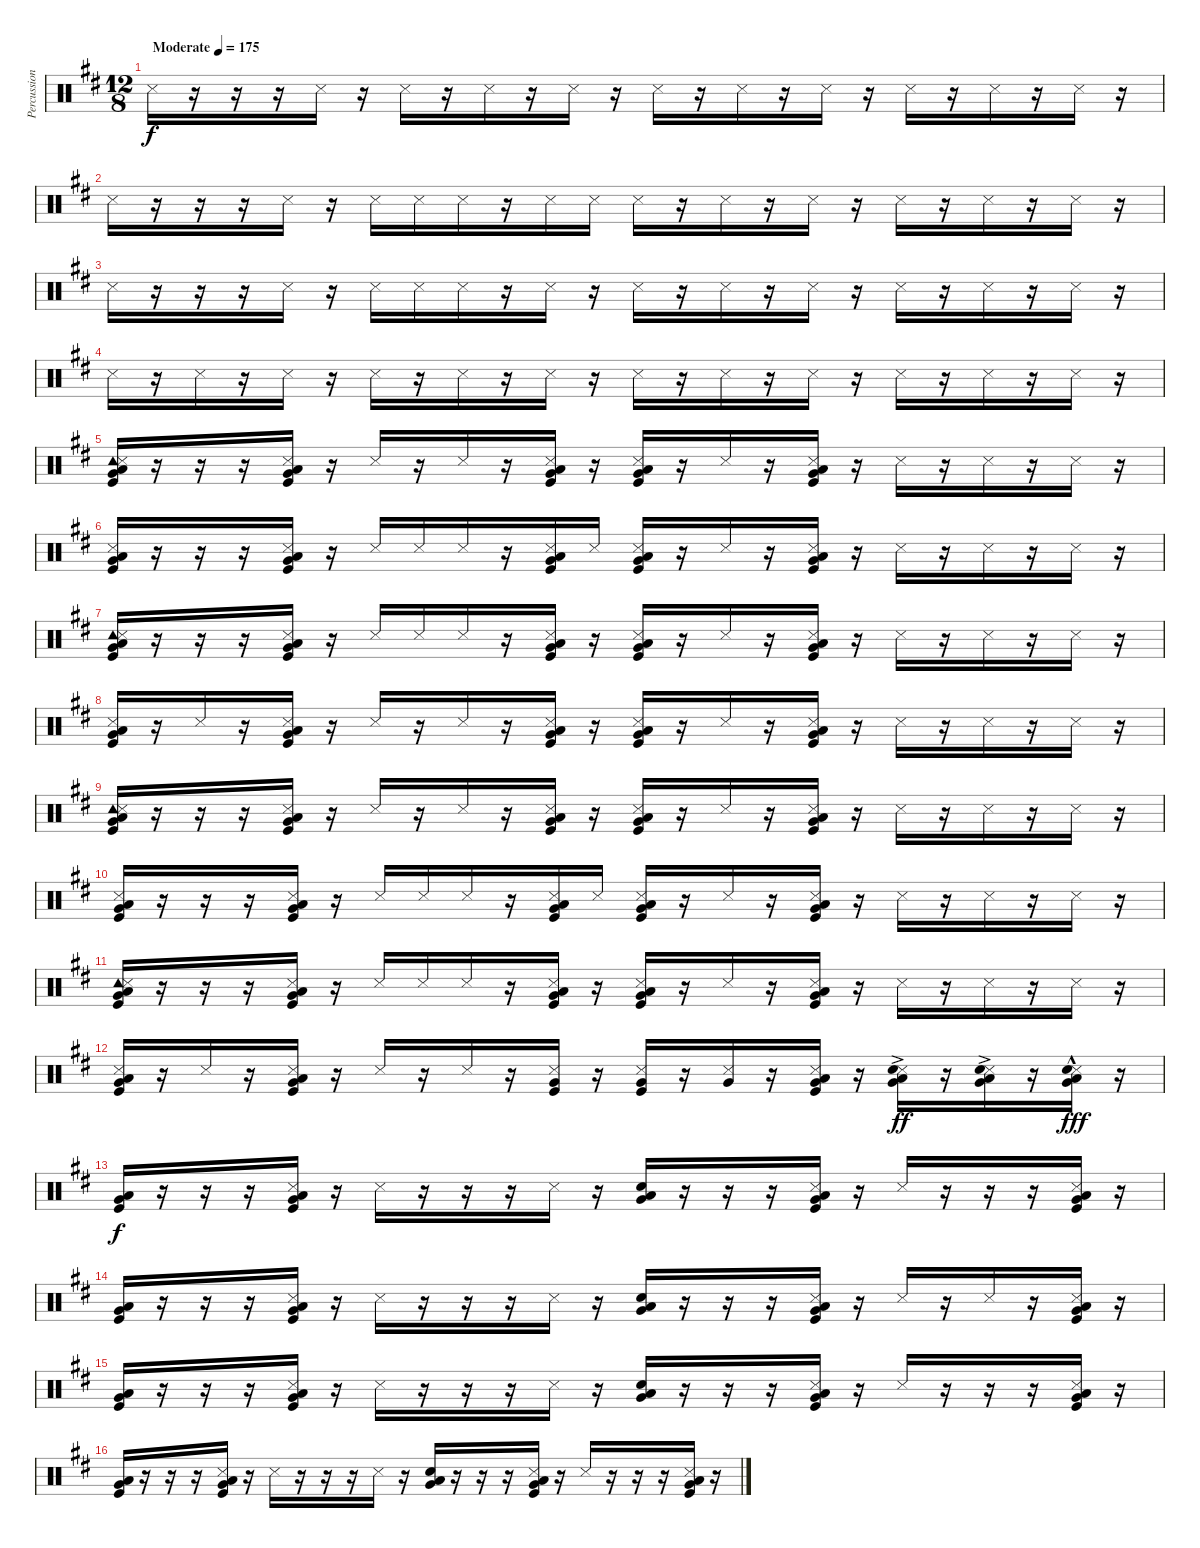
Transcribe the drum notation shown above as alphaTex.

\track ("Percussion" "Percussion") {instrument percussion}
\staff {score}
\articulation defaults
\ts (12 8)
\tempo (175 "Moderate")
\clef neutral
\ks d "Snare (side stick) 3".16{dy f}
r.16 r.16 r.16 "Snare (side stick) 3".16 r.16 "Snare (side stick) 3".16 r.16 "Snare (side stick) 3".16 r.16 "Snare (side stick) 3".16 r.16 "Snare (side stick) 3".16 r.16 "Snare (side stick) 3".16 r.16 "Snare (side stick) 3".16 r.16 "Snare (side stick) 3".16 r.16 "Snare (side stick) 3".16 r.16 "Snare (side stick) 3".16 r.16 |
"Snare (side stick) 3".16 r.16 r.16 r.16 "Snare (side stick) 3".16 r.16 "Snare (side stick) 3".16 "Snare (side stick) 3".16 "Snare (side stick) 3".16 r.16 "Snare (side stick) 3".16 "Snare (side stick) 3".16 "Snare (side stick) 3".16 r.16 "Snare (side stick) 3".16 r.16 "Snare (side stick) 3".16 r.16 "Snare (side stick) 3".16 r.16 "Snare (side stick) 3".16 r.16 "Snare (side stick) 3".16 r.16 |
"Snare (side stick) 3".16 r.16 r.16 r.16 "Snare (side stick) 3".16 r.16 "Snare (side stick) 3".16 "Snare (side stick) 3".16 "Snare (side stick) 3".16 r.16 "Snare (side stick) 3".16 r.16 "Snare (side stick) 3".16 r.16 "Snare (side stick) 3".16 r.16 "Snare (side stick) 3".16 r.16 "Snare (side stick) 3".16 r.16 "Snare (side stick) 3".16 r.16 "Snare (side stick) 3".16 r.16 |
"Snare (side stick) 3".16 r.16 "Snare (side stick) 3".16 r.16 "Snare (side stick) 3".16 r.16 "Snare (side stick) 3".16 r.16 "Snare (side stick) 3".16 r.16 "Snare (side stick) 3".16 r.16 "Snare (side stick) 3".16 r.16 "Snare (side stick) 3".16 r.16 "Snare (side stick) 3".16 r.16 "Snare (side stick) 3".16 r.16 "Snare (side stick) 3".16 r.16 "Snare (side stick) 3".16 r.16 |
("Tambourine (hit)" "Snare (side stick) 3" "Low Floor Tom (hit)" "Very Low Tom (hit)" "Kick (hit)").16 r.16 r.16 r.16 ("Snare (side stick) 3" "Low Floor Tom (hit)" "Very Low Tom (hit)" "Kick (hit)").16 r.16 "Snare (side stick) 3".16 r.16 "Snare (side stick) 3".16 r.16 ("Snare (side stick) 3" "Low Floor Tom (hit)" "Very Low Tom (hit)" "Kick (hit)").16 r.16 ("Snare (side stick) 3" "Low Floor Tom (hit)" "Very Low Tom (hit)" "Kick (hit)").16 r.16 "Snare (side stick) 3".16 r.16 ("Snare (side stick) 3" "Low Floor Tom (hit)" "Very Low Tom (hit)" "Kick (hit)").16 r.16 "Snare (side stick) 3".16 r.16 "Snare (side stick) 3".16 r.16 "Snare (side stick) 3".16 r.16 |
("Snare (side stick) 3" "Low Floor Tom (hit)" "Very Low Tom (hit)" "Kick (hit)").16 r.16 r.16 r.16 ("Snare (side stick) 3" "Low Floor Tom (hit)" "Very Low Tom (hit)" "Kick (hit)").16 r.16 "Snare (side stick) 3".16 "Snare (side stick) 3".16 "Snare (side stick) 3".16 r.16 ("Snare (side stick) 3" "Low Floor Tom (hit)" "Very Low Tom (hit)" "Kick (hit)").16 "Snare (side stick) 3".16 ("Snare (side stick) 3" "Low Floor Tom (hit)" "Very Low Tom (hit)" "Kick (hit)").16 r.16 "Snare (side stick) 3".16 r.16 ("Snare (side stick) 3" "Low Floor Tom (hit)" "Very Low Tom (hit)" "Kick (hit)").16 r.16 "Snare (side stick) 3".16 r.16 "Snare (side stick) 3".16 r.16 "Snare (side stick) 3".16 r.16 |
("Tambourine (hit)" "Snare (side stick) 3" "Low Floor Tom (hit)" "Very Low Tom (hit)" "Kick (hit)").16 r.16 r.16 r.16 ("Snare (side stick) 3" "Low Floor Tom (hit)" "Very Low Tom (hit)" "Kick (hit)").16 r.16 "Snare (side stick) 3".16 "Snare (side stick) 3".16 "Snare (side stick) 3".16 r.16 ("Snare (side stick) 3" "Low Floor Tom (hit)" "Very Low Tom (hit)" "Kick (hit)").16 r.16 ("Snare (side stick) 3" "Low Floor Tom (hit)" "Very Low Tom (hit)" "Kick (hit)").16 r.16 "Snare (side stick) 3".16 r.16 ("Snare (side stick) 3" "Low Floor Tom (hit)" "Very Low Tom (hit)" "Kick (hit)").16 r.16 "Snare (side stick) 3".16 r.16 "Snare (side stick) 3".16 r.16 "Snare (side stick) 3".16 r.16 |
("Snare (side stick) 3" "Low Floor Tom (hit)" "Very Low Tom (hit)" "Kick (hit)").16 r.16 "Snare (side stick) 3".16 r.16 ("Snare (side stick) 3" "Low Floor Tom (hit)" "Very Low Tom (hit)" "Kick (hit)").16 r.16 "Snare (side stick) 3".16 r.16 "Snare (side stick) 3".16 r.16 ("Snare (side stick) 3" "Low Floor Tom (hit)" "Very Low Tom (hit)" "Kick (hit)").16 r.16 ("Snare (side stick) 3" "Low Floor Tom (hit)" "Very Low Tom (hit)" "Kick (hit)").16 r.16 "Snare (side stick) 3".16 r.16 ("Snare (side stick) 3" "Low Floor Tom (hit)" "Very Low Tom (hit)" "Kick (hit)").16 r.16 "Snare (side stick) 3".16 r.16 "Snare (side stick) 3".16 r.16 "Snare (side stick) 3".16 r.16 |
("Tambourine (hit)" "Snare (side stick) 3" "Low Floor Tom (hit)" "Very Low Tom (hit)" "Kick (hit)").16 r.16 r.16 r.16 ("Snare (side stick) 3" "Low Floor Tom (hit)" "Very Low Tom (hit)" "Kick (hit)").16 r.16 "Snare (side stick) 3".16 r.16 "Snare (side stick) 3".16 r.16 ("Snare (side stick) 3" "Low Floor Tom (hit)" "Very Low Tom (hit)" "Kick (hit)").16 r.16 ("Snare (side stick) 3" "Low Floor Tom (hit)" "Very Low Tom (hit)" "Kick (hit)").16 r.16 "Snare (side stick) 3".16 r.16 ("Snare (side stick) 3" "Low Floor Tom (hit)" "Very Low Tom (hit)" "Kick (hit)").16 r.16 "Snare (side stick) 3".16 r.16 "Snare (side stick) 3".16 r.16 "Snare (side stick) 3".16 r.16 |
("Snare (side stick) 3" "Low Floor Tom (hit)" "Very Low Tom (hit)" "Kick (hit)").16 r.16 r.16 r.16 ("Snare (side stick) 3" "Low Floor Tom (hit)" "Very Low Tom (hit)" "Kick (hit)").16 r.16 "Snare (side stick) 3".16 "Snare (side stick) 3".16 "Snare (side stick) 3".16 r.16 ("Snare (side stick) 3" "Low Floor Tom (hit)" "Very Low Tom (hit)" "Kick (hit)").16 "Snare (side stick) 3".16 ("Snare (side stick) 3" "Low Floor Tom (hit)" "Very Low Tom (hit)" "Kick (hit)").16 r.16 "Snare (side stick) 3".16 r.16 ("Snare (side stick) 3" "Low Floor Tom (hit)" "Very Low Tom (hit)" "Kick (hit)").16 r.16 "Snare (side stick) 3".16 r.16 "Snare (side stick) 3".16 r.16 "Snare (side stick) 3".16 r.16 |
("Tambourine (hit)" "Snare (side stick) 3" "Low Floor Tom (hit)" "Very Low Tom (hit)" "Kick (hit)").16 r.16 r.16 r.16 ("Snare (side stick) 3" "Low Floor Tom (hit)" "Very Low Tom (hit)" "Kick (hit)").16 r.16 "Snare (side stick) 3".16 "Snare (side stick) 3".16 "Snare (side stick) 3".16 r.16 ("Snare (side stick) 3" "Low Floor Tom (hit)" "Very Low Tom (hit)" "Kick (hit)").16 r.16 ("Snare (side stick) 3" "Low Floor Tom (hit)" "Very Low Tom (hit)" "Kick (hit)").16 r.16 "Snare (side stick) 3".16 r.16 ("Snare (side stick) 3" "Low Floor Tom (hit)" "Very Low Tom (hit)" "Kick (hit)").16 r.16 "Snare (side stick) 3".16 r.16 "Snare (side stick) 3".16 r.16 "Snare (side stick) 3".16 r.16 |
("Snare (side stick) 3" "Low Floor Tom (hit)" "Very Low Tom (hit)" "Kick (hit)").16 r.16 "Snare (side stick) 3".16 r.16 ("Snare (side stick) 3" "Low Floor Tom (hit)" "Very Low Tom (hit)" "Kick (hit)").16 r.16 "Snare (side stick) 3".16 r.16 "Snare (side stick) 3".16 r.16 ("Snare (side stick) 3" "Very Low Tom (hit)" "Kick (hit)").16 r.16 ("Snare (side stick) 3" "Very Low Tom (hit)" "Kick (hit)").16 r.16 ("Snare (side stick) 3" "Very Low Tom (hit)").16 r.16 ("Snare (side stick) 3" "Low Floor Tom (hit)" "Very Low Tom (hit)" "Kick (hit)").16 r.16 ("Snare (side stick) 3" "Low Floor Tom (hit)"{ac} "Very Low Tom (hit)" "Snare (hit)").16{dy ff} r.16 ("Snare (side stick) 3" "Low Floor Tom (hit)"{ac} "Very Low Tom (hit)" "Snare (hit)").16 r.16 ("Snare (side stick) 3" "Low Floor Tom (hit)"{hac} "Very Low Tom (hit)" "Snare (hit)").16{dy fff} r.16 |
("Low Floor Tom (hit)" "Very Low Tom (hit)" "Kick (hit)").16{dy f} r.16 r.16 r.16 ("Snare (side stick) 3" "Low Floor Tom (hit)" "Very Low Tom (hit)" "Kick (hit)").16 r.16 "Snare (side stick) 3".16 r.16 r.16 r.16 "Snare (side stick) 3".16 r.16 ("Low Floor Tom (hit)" "Very Low Tom (hit)" "Snare (hit)").16 r.16 r.16 r.16 ("Snare (side stick) 3" "Low Floor Tom (hit)" "Very Low Tom (hit)" "Kick (hit)").16 r.16 "Snare (side stick) 3".16 r.16 r.16 r.16 ("Snare (side stick) 3" "Low Floor Tom (hit)" "Very Low Tom (hit)" "Kick (hit)").16 r.16 |
("Low Floor Tom (hit)" "Very Low Tom (hit)" "Kick (hit)").16 r.16 r.16 r.16 ("Snare (side stick) 3" "Low Floor Tom (hit)" "Very Low Tom (hit)" "Kick (hit)").16 r.16 "Snare (side stick) 3".16 r.16 r.16 r.16 "Snare (side stick) 3".16 r.16 ("Low Floor Tom (hit)" "Very Low Tom (hit)" "Snare (hit)").16 r.16 r.16 r.16 ("Snare (side stick) 3" "Low Floor Tom (hit)" "Very Low Tom (hit)" "Kick (hit)").16 r.16 "Snare (side stick) 3".16 r.16 "Snare (side stick) 3".16 r.16 ("Snare (side stick) 3" "Low Floor Tom (hit)" "Very Low Tom (hit)" "Kick (hit)").16 r.16 |
("Low Floor Tom (hit)" "Very Low Tom (hit)" "Kick (hit)").16 r.16 r.16 r.16 ("Snare (side stick) 3" "Low Floor Tom (hit)" "Very Low Tom (hit)" "Kick (hit)").16 r.16 "Snare (side stick) 3".16 r.16 r.16 r.16 "Snare (side stick) 3".16 r.16 ("Low Floor Tom (hit)" "Very Low Tom (hit)" "Snare (hit)").16 r.16 r.16 r.16 ("Snare (side stick) 3" "Low Floor Tom (hit)" "Very Low Tom (hit)" "Kick (hit)").16 r.16 "Snare (side stick) 3".16 r.16 r.16 r.16 ("Snare (side stick) 3" "Low Floor Tom (hit)" "Very Low Tom (hit)" "Kick (hit)").16 r.16 |
("Low Floor Tom (hit)" "Very Low Tom (hit)" "Kick (hit)").16 r.16 r.16 r.16 ("Snare (side stick) 3" "Low Floor Tom (hit)" "Very Low Tom (hit)" "Kick (hit)").16 r.16 "Snare (side stick) 3".16 r.16 r.16 r.16 "Snare (side stick) 3".16 r.16 ("Low Floor Tom (hit)" "Very Low Tom (hit)" "Snare (hit)").16 r.16 r.16 r.16 ("Snare (side stick) 3" "Low Floor Tom (hit)" "Very Low Tom (hit)" "Kick (hit)").16 r.16 "Snare (side stick) 3".16 r.16 r.16 r.16 ("Snare (side stick) 3" "Low Floor Tom (hit)" "Very Low Tom (hit)" "Kick (hit)").16 r.16
